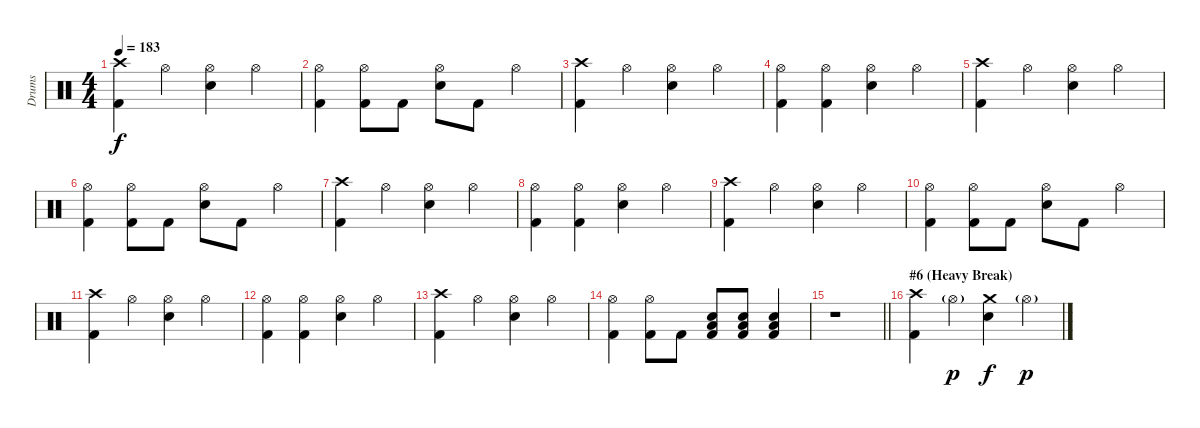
\track ("Drums" "Drums") {instrument percussion}
\staff {score}
\articulation defaults
\ts (4 4)
\tempo 183
\clef neutral
\ks c
("Crash high (hit)" "Kick (hit) 2").4{dy f} "Hi-Hat (open)".4 ("Hi-Hat (open)" "Electric Snare (hit)").4 "Hi-Hat (open)".4 |
("Hi-Hat (open)" "Kick (hit) 2").4 ("Hi-Hat (open)" "Kick (hit) 2").8 "Kick (hit) 2".8 ("Hi-Hat (open)" "Electric Snare (hit)").8 "Kick (hit) 2".8 "Hi-Hat (open)".4 |
("Crash high (hit)" "Kick (hit) 2").4 "Hi-Hat (open)".4 ("Hi-Hat (open)" "Electric Snare (hit)").4 "Hi-Hat (open)".4 |
("Hi-Hat (open)" "Kick (hit) 2").4 ("Hi-Hat (open)" "Kick (hit) 2").4 ("Hi-Hat (open)" "Electric Snare (hit)").4 "Hi-Hat (open)".4 |
("Crash high (hit)" "Kick (hit) 2").4 "Hi-Hat (open)".4 ("Hi-Hat (open)" "Electric Snare (hit)").4 "Hi-Hat (open)".4 |
("Hi-Hat (open)" "Kick (hit) 2").4 ("Hi-Hat (open)" "Kick (hit) 2").8 "Kick (hit) 2".8 ("Hi-Hat (open)" "Electric Snare (hit)").8 "Kick (hit) 2".8 "Hi-Hat (open)".4 |
("Crash high (hit)" "Kick (hit) 2").4 "Hi-Hat (open)".4 ("Hi-Hat (open)" "Electric Snare (hit)").4 "Hi-Hat (open)".4 |
("Hi-Hat (open)" "Kick (hit) 2").4 ("Hi-Hat (open)" "Kick (hit) 2").4 ("Hi-Hat (open)" "Electric Snare (hit)").4 "Hi-Hat (open)".4 |
("Crash high (hit)" "Kick (hit) 2").4 "Hi-Hat (open)".4 ("Hi-Hat (open)" "Electric Snare (hit)").4 "Hi-Hat (open)".4 |
("Hi-Hat (open)" "Kick (hit) 2").4 ("Hi-Hat (open)" "Kick (hit) 2").8 "Kick (hit) 2".8 ("Hi-Hat (open)" "Electric Snare (hit)").8 "Kick (hit) 2".8 "Hi-Hat (open)".4 |
("Crash high (hit)" "Kick (hit) 2").4 "Hi-Hat (open)".4 ("Hi-Hat (open)" "Electric Snare (hit)").4 "Hi-Hat (open)".4 |
("Hi-Hat (open)" "Kick (hit) 2").4 ("Hi-Hat (open)" "Kick (hit) 2").4 ("Hi-Hat (open)" "Electric Snare (hit)").4 "Hi-Hat (open)".4 |
("Crash high (hit)" "Kick (hit) 2").4 "Hi-Hat (open)".4 ("Hi-Hat (open)" "Electric Snare (hit)").4 "Hi-Hat (open)".4 |
("Hi-Hat (open)" "Kick (hit) 2").4 ("Hi-Hat (open)" "Kick (hit) 2").8 "Kick (hit) 2".8 ("Electric Snare (hit)" "Low Floor Tom (hit)" "Kick (hit) 2").8 ("Electric Snare (hit)" "Low Floor Tom (hit)" "Kick (hit) 2").8 ("Electric Snare (hit)" "Low Floor Tom (hit)" "Kick (hit) 2").4 |
\barLineRight lightlight
r.1 |
\section ("" "#6 (Heavy Break)")
("Crash high (hit)" "Kick (hit) 2").4 "Hi-Hat (open)"{g}.4{dy p} ("Crash medium (hit)" "Electric Snare (hit)").4{dy f} "Hi-Hat (open)"{g}.4{dy p}
